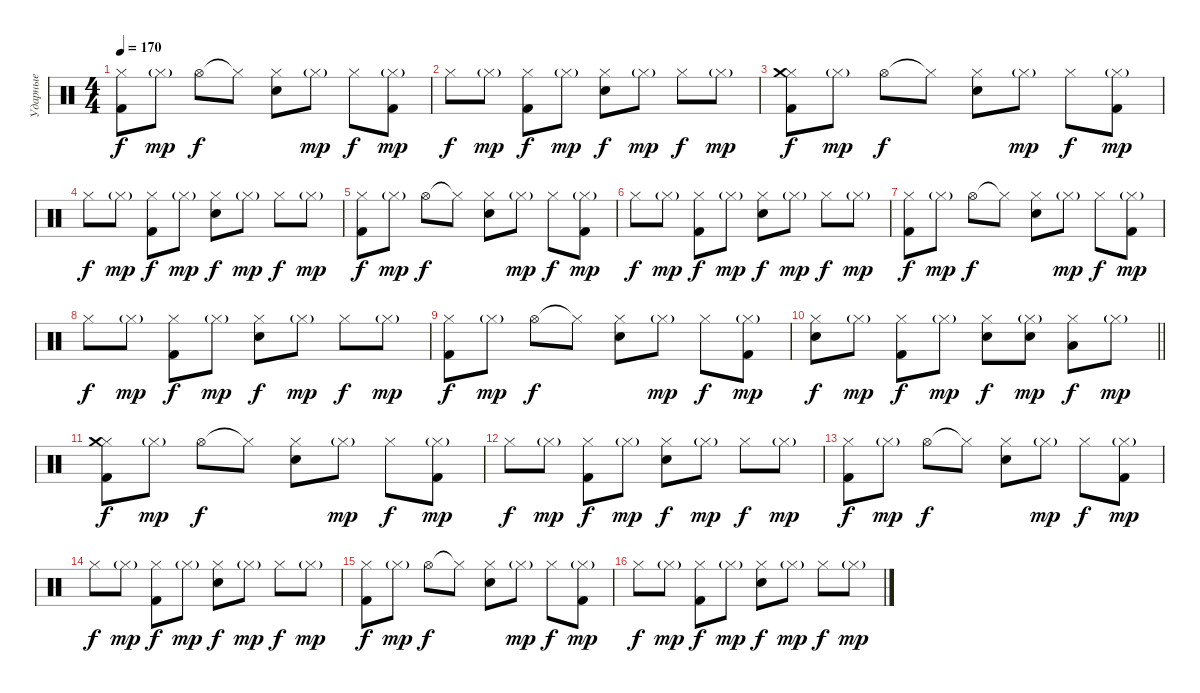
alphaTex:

\track ("Ударные" "Ударные") {instrument percussion}
\staff {score}
\articulation defaults
\ts (4 4)
\tempo 170
\clef neutral
\ks c
("Kick (hit) 2" "Hi-Hat (closed)").8{dy f} "Hi-Hat (closed)"{g}.8{dy mp} "Hi-Hat (open)".8{dy f} "Hi-Hat (closed)"{t}.8 ("Electric Snare (hit)" "Hi-Hat (closed)").8 "Hi-Hat (closed)"{g}.8{dy mp} "Hi-Hat (closed)".8{dy f} ("Kick (hit) 2" "Hi-Hat (closed)"{g}).8{dy mp} |
"Hi-Hat (closed)".8{dy f} "Hi-Hat (closed)"{g}.8{dy mp} ("Kick (hit) 2" "Hi-Hat (closed)").8{dy f} "Hi-Hat (closed)"{g}.8{dy mp} ("Electric Snare (hit)" "Hi-Hat (closed)").8{dy f} "Hi-Hat (closed)"{g}.8{dy mp} "Hi-Hat (closed)".8{dy f} "Hi-Hat (closed)"{g}.8{dy mp} |
("Kick (hit) 2" "Hi-Hat (closed)" "Crash medium (hit)").8{dy f} "Hi-Hat (closed)"{g}.8{dy mp} "Hi-Hat (open)".8{dy f} "Hi-Hat (closed)"{t}.8 ("Electric Snare (hit)" "Hi-Hat (closed)").8 "Hi-Hat (closed)"{g}.8{dy mp} "Hi-Hat (closed)".8{dy f} ("Kick (hit) 2" "Hi-Hat (closed)"{g}).8{dy mp} |
"Hi-Hat (closed)".8{dy f} "Hi-Hat (closed)"{g}.8{dy mp} ("Kick (hit) 2" "Hi-Hat (closed)").8{dy f} "Hi-Hat (closed)"{g}.8{dy mp} ("Electric Snare (hit)" "Hi-Hat (closed)").8{dy f} "Hi-Hat (closed)"{g}.8{dy mp} "Hi-Hat (closed)".8{dy f} "Hi-Hat (closed)"{g}.8{dy mp} |
("Kick (hit) 2" "Hi-Hat (closed)").8{dy f} "Hi-Hat (closed)"{g}.8{dy mp} "Hi-Hat (open)".8{dy f} "Hi-Hat (closed)"{t}.8 ("Electric Snare (hit)" "Hi-Hat (closed)").8 "Hi-Hat (closed)"{g}.8{dy mp} "Hi-Hat (closed)".8{dy f} ("Kick (hit) 2" "Hi-Hat (closed)"{g}).8{dy mp} |
"Hi-Hat (closed)".8{dy f} "Hi-Hat (closed)"{g}.8{dy mp} ("Kick (hit) 2" "Hi-Hat (closed)").8{dy f} "Hi-Hat (closed)"{g}.8{dy mp} ("Electric Snare (hit)" "Hi-Hat (closed)").8{dy f} "Hi-Hat (closed)"{g}.8{dy mp} "Hi-Hat (closed)".8{dy f} "Hi-Hat (closed)"{g}.8{dy mp} |
("Kick (hit) 2" "Hi-Hat (closed)").8{dy f} "Hi-Hat (closed)"{g}.8{dy mp} "Hi-Hat (open)".8{dy f} "Hi-Hat (closed)"{t}.8 ("Electric Snare (hit)" "Hi-Hat (closed)").8 "Hi-Hat (closed)"{g}.8{dy mp} "Hi-Hat (closed)".8{dy f} ("Kick (hit) 2" "Hi-Hat (closed)"{g}).8{dy mp} |
"Hi-Hat (closed)".8{dy f} "Hi-Hat (closed)"{g}.8{dy mp} ("Kick (hit) 2" "Hi-Hat (closed)").8{dy f} "Hi-Hat (closed)"{g}.8{dy mp} ("Electric Snare (hit)" "Hi-Hat (closed)").8{dy f} "Hi-Hat (closed)"{g}.8{dy mp} "Hi-Hat (closed)".8{dy f} "Hi-Hat (closed)"{g}.8{dy mp} |
("Kick (hit) 2" "Hi-Hat (closed)").8{dy f} "Hi-Hat (closed)"{g}.8{dy mp} "Hi-Hat (open)".8{dy f} "Hi-Hat (closed)"{t}.8 ("Electric Snare (hit)" "Hi-Hat (closed)").8 "Hi-Hat (closed)"{g}.8{dy mp} "Hi-Hat (closed)".8{dy f} ("Kick (hit) 2" "Hi-Hat (closed)"{g}).8{dy mp} |
\barLineRight lightlight
("Electric Snare (hit)" "Hi-Hat (closed)").8{dy f} "Hi-Hat (closed)"{g}.8{dy mp} ("Kick (hit) 2" "Hi-Hat (closed)").8{dy f} "Hi-Hat (closed)"{g}.8{dy mp} ("Electric Snare (hit)" "Hi-Hat (closed)").8{dy f} ("Electric Snare (hit)" "Hi-Hat (closed)"{g}).8{dy mp} ("Low Floor Tom (hit)" "Hi-Hat (closed)").8{dy f} "Hi-Hat (closed)"{g}.8{dy mp} |
("Kick (hit) 2" "Hi-Hat (closed)" "Crash medium (hit)").8{dy f} "Hi-Hat (closed)"{g}.8{dy mp} "Hi-Hat (open)".8{dy f} "Hi-Hat (closed)"{t}.8 ("Electric Snare (hit)" "Hi-Hat (closed)").8 "Hi-Hat (closed)"{g}.8{dy mp} "Hi-Hat (closed)".8{dy f} ("Kick (hit) 2" "Hi-Hat (closed)"{g}).8{dy mp} |
"Hi-Hat (closed)".8{dy f} "Hi-Hat (closed)"{g}.8{dy mp} ("Kick (hit) 2" "Hi-Hat (closed)").8{dy f} "Hi-Hat (closed)"{g}.8{dy mp} ("Electric Snare (hit)" "Hi-Hat (closed)").8{dy f} "Hi-Hat (closed)"{g}.8{dy mp} "Hi-Hat (closed)".8{dy f} "Hi-Hat (closed)"{g}.8{dy mp} |
("Kick (hit) 2" "Hi-Hat (closed)").8{dy f} "Hi-Hat (closed)"{g}.8{dy mp} "Hi-Hat (open)".8{dy f} "Hi-Hat (closed)"{t}.8 ("Electric Snare (hit)" "Hi-Hat (closed)").8 "Hi-Hat (closed)"{g}.8{dy mp} "Hi-Hat (closed)".8{dy f} ("Kick (hit) 2" "Hi-Hat (closed)"{g}).8{dy mp} |
"Hi-Hat (closed)".8{dy f} "Hi-Hat (closed)"{g}.8{dy mp} ("Kick (hit) 2" "Hi-Hat (closed)").8{dy f} "Hi-Hat (closed)"{g}.8{dy mp} ("Electric Snare (hit)" "Hi-Hat (closed)").8{dy f} "Hi-Hat (closed)"{g}.8{dy mp} "Hi-Hat (closed)".8{dy f} "Hi-Hat (closed)"{g}.8{dy mp} |
("Kick (hit) 2" "Hi-Hat (closed)").8{dy f} "Hi-Hat (closed)"{g}.8{dy mp} "Hi-Hat (open)".8{dy f} "Hi-Hat (closed)"{t}.8 ("Electric Snare (hit)" "Hi-Hat (closed)").8 "Hi-Hat (closed)"{g}.8{dy mp} "Hi-Hat (closed)".8{dy f} ("Kick (hit) 2" "Hi-Hat (closed)"{g}).8{dy mp} |
"Hi-Hat (closed)".8{dy f} "Hi-Hat (closed)"{g}.8{dy mp} ("Kick (hit) 2" "Hi-Hat (closed)").8{dy f} "Hi-Hat (closed)"{g}.8{dy mp} ("Electric Snare (hit)" "Hi-Hat (closed)").8{dy f} "Hi-Hat (closed)"{g}.8{dy mp} "Hi-Hat (closed)".8{dy f} "Hi-Hat (closed)"{g}.8{dy mp}
